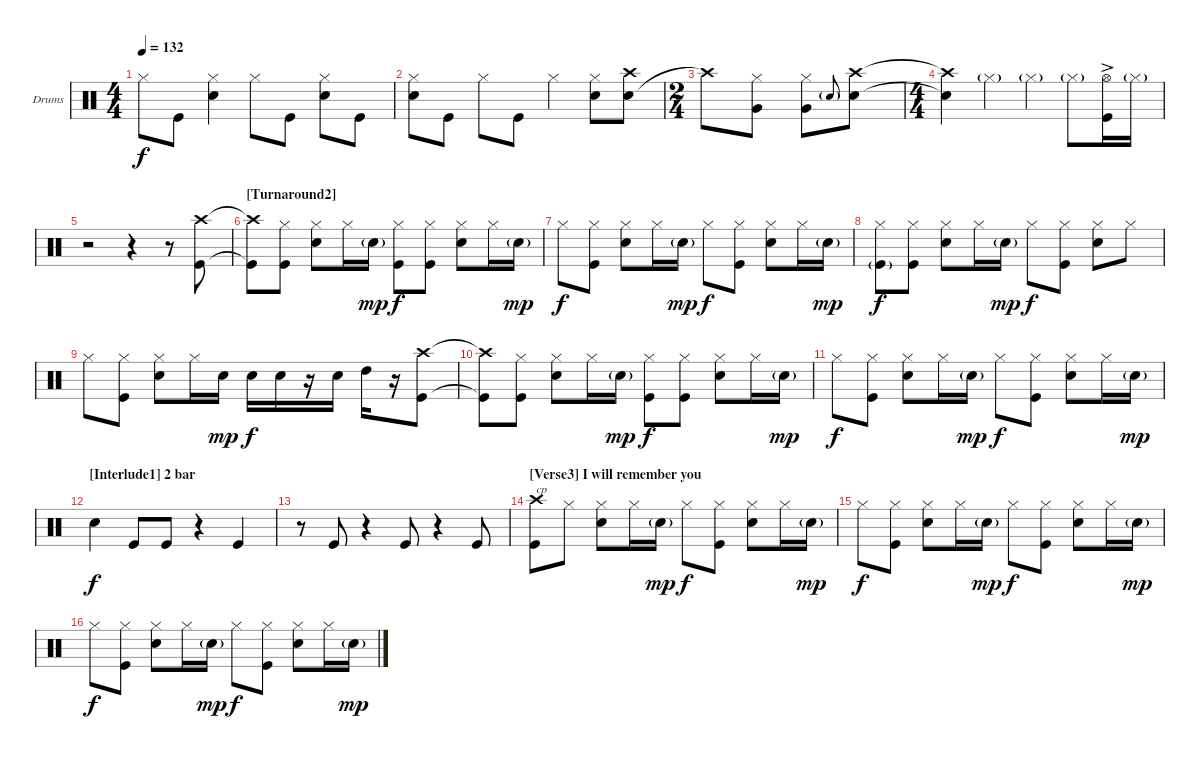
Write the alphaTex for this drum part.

\bracketExtendMode groupsimilarinstruments
\firstSystemTrackNameOrientation horizontal
\otherSystemsTrackNameOrientation horizontal
\track ("Drumkit" "Drums") {instrument percussion}
\staff {score}
\articulation defaults
\ts (4 4)
\tempo 132
\clef neutral
\ks aminor "Hi-Hat (closed)".8{dy f} "Kick (hit)".8
("Hi-Hat (closed)" "Snare (hit) 2").4 "Hi-Hat (closed)".8 "Kick (hit)".8 ("Hi-Hat (closed)" "Snare (hit) 2").8 "Kick (hit)".8 |
("Hi-Hat (closed)" "Snare (hit) 2").8 "Kick (hit)".8 "Hi-Hat (closed)".8 "Kick (hit)".8 "Hi-Hat (closed)".4 ("Hi-Hat (closed)" "Snare (hit) 2").8 ("Snare (hit) 2" "Crash high (hit)").8 |
\ts (2 4)
"Crash high (hit)"{t}.8 ("Very Low Tom (hit)" "Hi-Hat (closed)").8 ("Very Low Tom (hit)" "Hi-Hat (closed)").8 "Snare (hit) 2"{g}.8{gr onbeat} ("Crash high (hit)" "Snare (hit) 2").8 |
\ts (4 4)
("Crash high (hit)"{t} "Snare (hit) 2"{t}).4 "Hi-Hat (closed)"{g}.4 "Hi-Hat (closed)"{g}.4 "Hi-Hat (closed)"{g}.8 ("Kick (hit)" "Hi-Hat (open)"{ac}).16 "Hi-Hat (closed)"{g}.16 |
r.2 r.4 r.8 ("Kick (hit)" "Crash high (hit)").8 |
\section ("" "[Turnaround2]")
("Kick (hit)"{t} "Crash high (hit)"{t}).8 ("Hi-Hat (closed)" "Kick (hit)").8 ("Snare (hit) 2" "Hi-Hat (closed)").8 "Hi-Hat (closed)".16 "Snare (hit) 2"{g}.16{dy mp} ("Hi-Hat (closed)" "Kick (hit)").8{dy f} ("Kick (hit)" "Hi-Hat (closed)").8 ("Snare (hit) 2" "Hi-Hat (closed)").8 "Hi-Hat (closed)".16 "Snare (hit) 2"{g}.16{dy mp} |
"Hi-Hat (closed)".8{dy f} ("Hi-Hat (closed)" "Kick (hit)").8 ("Snare (hit) 2" "Hi-Hat (closed)").8 "Hi-Hat (closed)".16 "Snare (hit) 2"{g}.16{dy mp} "Hi-Hat (closed)".8{dy f} ("Kick (hit)" "Hi-Hat (closed)").8 ("Snare (hit) 2" "Hi-Hat (closed)").8 "Hi-Hat (closed)".16 "Snare (hit) 2"{g}.16{dy mp} |
("Hi-Hat (closed)" "Kick (hit)"{g}).8{dy f} ("Hi-Hat (closed)" "Kick (hit)").8 ("Snare (hit) 2" "Hi-Hat (closed)").8 "Hi-Hat (closed)".16 "Snare (hit) 2"{g}.16{dy mp} "Hi-Hat (closed)".8{dy f} ("Kick (hit)" "Hi-Hat (closed)").8 ("Snare (hit) 2" "Hi-Hat (closed)").8 "Hi-Hat (closed)".8 |
"Hi-Hat (closed)".8 ("Hi-Hat (closed)" "Kick (hit)").8 ("Snare (hit) 2" "Hi-Hat (closed)").8 "Hi-Hat (closed)".16 "Snare (hit) 2".16{dy mp} "Snare (hit) 2".16{dy f} "Snare (hit) 2".16 r.16 "Snare (hit) 2".16 "High Tom (hit)".16 r.16 ("Kick (hit)" "Crash high (hit)").8 |
("Kick (hit)"{t} "Crash high (hit)"{t}).8 ("Hi-Hat (closed)" "Kick (hit)").8 ("Snare (hit) 2" "Hi-Hat (closed)").8 "Hi-Hat (closed)".16 "Snare (hit) 2"{g}.16{dy mp} ("Hi-Hat (closed)" "Kick (hit)").8{dy f} ("Kick (hit)" "Hi-Hat (closed)").8 ("Snare (hit) 2" "Hi-Hat (closed)").8 "Hi-Hat (closed)".16 "Snare (hit) 2"{g}.16{dy mp} |
"Hi-Hat (closed)".8{dy f} ("Hi-Hat (closed)" "Kick (hit)").8 ("Snare (hit) 2" "Hi-Hat (closed)").8 "Hi-Hat (closed)".16 "Snare (hit) 2"{g}.16{dy mp} "Hi-Hat (closed)".8{dy f} ("Kick (hit)" "Hi-Hat (closed)").8 ("Snare (hit) 2" "Hi-Hat (closed)").8 "Hi-Hat (closed)".16 "Snare (hit) 2"{g}.16{dy mp} |
\section ("" "[Interlude1] 2 bar")
"Snare (hit) 2".4{dy f} "Kick (hit)".8 "Kick (hit)".8 r.4 "Kick (hit)".4 |
r.8 "Kick (hit)".8 r.4 "Kick (hit)".8 r.4 "Kick (hit)".8 |
\section ("" "[Verse3] I will remember you")
("Crash high (hit)" "Kick (hit)").8{txt "cp"} "Hi-Hat (closed)".8 ("Snare (hit) 2" "Hi-Hat (closed)").8 "Hi-Hat (closed)".16 "Snare (hit) 2"{g}.16{dy mp} "Hi-Hat (closed)".8{dy f} ("Kick (hit)" "Hi-Hat (closed)").8 ("Snare (hit) 2" "Hi-Hat (closed)").8 "Hi-Hat (closed)".16 "Snare (hit) 2"{g}.16{dy mp} |
"Hi-Hat (closed)".8{dy f} ("Hi-Hat (closed)" "Kick (hit)").8 ("Snare (hit) 2" "Hi-Hat (closed)").8 "Hi-Hat (closed)".16 "Snare (hit) 2"{g}.16{dy mp} "Hi-Hat (closed)".8{dy f} ("Kick (hit)" "Hi-Hat (closed)").8 ("Snare (hit) 2" "Hi-Hat (closed)").8 "Hi-Hat (closed)".16 "Snare (hit) 2"{g}.16{dy mp} |
"Hi-Hat (closed)".8{dy f} ("Hi-Hat (closed)" "Kick (hit)").8 ("Snare (hit) 2" "Hi-Hat (closed)").8 "Hi-Hat (closed)".16 "Snare (hit) 2"{g}.16{dy mp} "Hi-Hat (closed)".8{dy f} ("Kick (hit)" "Hi-Hat (closed)").8 ("Snare (hit) 2" "Hi-Hat (closed)").8 "Hi-Hat (closed)".16 "Snare (hit) 2"{g}.16{dy mp}
